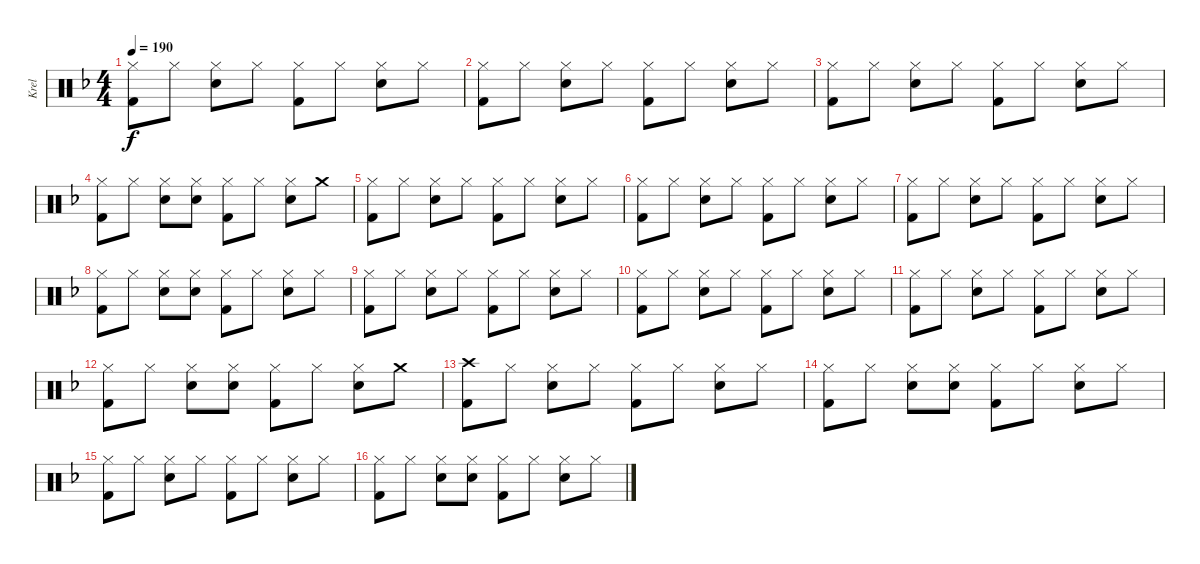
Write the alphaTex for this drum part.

\track ("Krel" "Krel") {instrument percussion}
\staff {score}
\articulation defaults
\ts (4 4)
\tempo 190
\clef neutral
\ks f
("Hi-Hat (closed)" "Kick (hit) 2").8{dy f} "Hi-Hat (closed)".8 ("Hi-Hat (closed)" "Snare (hit) 2").8 "Hi-Hat (closed)".8 ("Hi-Hat (closed)" "Kick (hit) 2").8 "Hi-Hat (closed)".8 ("Hi-Hat (closed)" "Snare (hit) 2").8 "Hi-Hat (closed)".8 |
("Hi-Hat (closed)" "Kick (hit) 2").8 "Hi-Hat (closed)".8 ("Hi-Hat (closed)" "Snare (hit) 2").8 "Hi-Hat (closed)".8 ("Hi-Hat (closed)" "Kick (hit) 2").8 "Hi-Hat (closed)".8 ("Hi-Hat (closed)" "Snare (hit) 2").8 "Hi-Hat (closed)".8 |
("Hi-Hat (closed)" "Kick (hit) 2").8 "Hi-Hat (closed)".8 ("Hi-Hat (closed)" "Snare (hit) 2").8 "Hi-Hat (closed)".8 ("Hi-Hat (closed)" "Kick (hit) 2").8 "Hi-Hat (closed)".8 ("Hi-Hat (closed)" "Snare (hit) 2").8 "Hi-Hat (closed)".8 |
("Hi-Hat (closed)" "Kick (hit) 2").8 "Hi-Hat (closed)".8 ("Hi-Hat (closed)" "Snare (hit) 2").8 ("Hi-Hat (closed)" "Snare (hit) 2").8 ("Hi-Hat (closed)" "Kick (hit) 2").8 "Hi-Hat (closed)".8 ("Hi-Hat (closed)" "Snare (hit) 2").8 "Crash medium (hit)".8 |
("Hi-Hat (closed)" "Kick (hit) 2").8 "Hi-Hat (closed)".8 ("Hi-Hat (closed)" "Snare (hit) 2").8 "Hi-Hat (closed)".8 ("Hi-Hat (closed)" "Kick (hit) 2").8 "Hi-Hat (closed)".8 ("Hi-Hat (closed)" "Snare (hit) 2").8 "Hi-Hat (closed)".8 |
("Hi-Hat (closed)" "Kick (hit) 2").8 "Hi-Hat (closed)".8 ("Hi-Hat (closed)" "Snare (hit) 2").8 "Hi-Hat (closed)".8 ("Hi-Hat (closed)" "Kick (hit) 2").8 "Hi-Hat (closed)".8 ("Hi-Hat (closed)" "Snare (hit) 2").8 "Hi-Hat (closed)".8 |
("Hi-Hat (closed)" "Kick (hit) 2").8 "Hi-Hat (closed)".8 ("Hi-Hat (closed)" "Snare (hit) 2").8 "Hi-Hat (closed)".8 ("Hi-Hat (closed)" "Kick (hit) 2").8 "Hi-Hat (closed)".8 ("Hi-Hat (closed)" "Snare (hit) 2").8 "Hi-Hat (closed)".8 |
("Hi-Hat (closed)" "Kick (hit) 2").8 "Hi-Hat (closed)".8 ("Hi-Hat (closed)" "Snare (hit) 2").8 ("Hi-Hat (closed)" "Snare (hit) 2").8 ("Hi-Hat (closed)" "Kick (hit) 2").8 "Hi-Hat (closed)".8 ("Hi-Hat (closed)" "Snare (hit) 2").8 "Hi-Hat (closed)".8 |
("Hi-Hat (closed)" "Kick (hit) 2").8 "Hi-Hat (closed)".8 ("Hi-Hat (closed)" "Snare (hit) 2").8 "Hi-Hat (closed)".8 ("Hi-Hat (closed)" "Kick (hit) 2").8 "Hi-Hat (closed)".8 ("Hi-Hat (closed)" "Snare (hit) 2").8 "Hi-Hat (closed)".8 |
("Hi-Hat (closed)" "Kick (hit) 2").8 "Hi-Hat (closed)".8 ("Hi-Hat (closed)" "Snare (hit) 2").8 "Hi-Hat (closed)".8 ("Hi-Hat (closed)" "Kick (hit) 2").8 "Hi-Hat (closed)".8 ("Hi-Hat (closed)" "Snare (hit) 2").8 "Hi-Hat (closed)".8 |
("Hi-Hat (closed)" "Kick (hit) 2").8 "Hi-Hat (closed)".8 ("Hi-Hat (closed)" "Snare (hit) 2").8 "Hi-Hat (closed)".8 ("Hi-Hat (closed)" "Kick (hit) 2").8 "Hi-Hat (closed)".8 ("Hi-Hat (closed)" "Snare (hit) 2").8 "Hi-Hat (closed)".8 |
("Hi-Hat (closed)" "Kick (hit) 2").8 "Hi-Hat (closed)".8 ("Hi-Hat (closed)" "Snare (hit) 2").8 ("Hi-Hat (closed)" "Snare (hit) 2").8 ("Hi-Hat (closed)" "Kick (hit) 2").8 "Hi-Hat (closed)".8 ("Hi-Hat (closed)" "Snare (hit) 2").8 "Crash medium (hit)".8 |
("Crash high (hit)" "Kick (hit) 2").8 "Hi-Hat (closed)".8 ("Hi-Hat (closed)" "Snare (hit) 2").8 "Hi-Hat (closed)".8 ("Hi-Hat (closed)" "Kick (hit) 2").8 "Hi-Hat (closed)".8 ("Hi-Hat (closed)" "Snare (hit) 2").8 "Hi-Hat (closed)".8 |
("Hi-Hat (closed)" "Kick (hit) 2").8 "Hi-Hat (closed)".8 ("Hi-Hat (closed)" "Snare (hit) 2").8 ("Hi-Hat (closed)" "Snare (hit) 2").8 ("Hi-Hat (closed)" "Kick (hit) 2").8 "Hi-Hat (closed)".8 ("Hi-Hat (closed)" "Snare (hit) 2").8 "Hi-Hat (closed)".8 |
("Hi-Hat (closed)" "Kick (hit) 2").8 "Hi-Hat (closed)".8 ("Hi-Hat (closed)" "Snare (hit) 2").8 "Hi-Hat (closed)".8 ("Hi-Hat (closed)" "Kick (hit) 2").8 "Hi-Hat (closed)".8 ("Hi-Hat (closed)" "Snare (hit) 2").8 "Hi-Hat (closed)".8 |
("Hi-Hat (closed)" "Kick (hit) 2").8 "Hi-Hat (closed)".8 ("Hi-Hat (closed)" "Snare (hit) 2").8 ("Hi-Hat (closed)" "Snare (hit) 2").8 ("Hi-Hat (closed)" "Kick (hit) 2").8 "Hi-Hat (closed)".8 ("Hi-Hat (closed)" "Snare (hit) 2").8 "Hi-Hat (closed)".8
